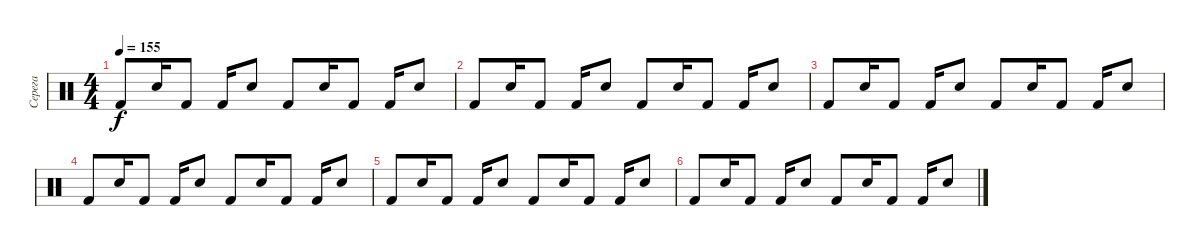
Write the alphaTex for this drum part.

\track ("Серега" "Серега") {instrument percussion}
\staff {score}
\articulation defaults
\ts (4 4)
\tempo 155
\clef neutral
\ks c "Kick (hit) 2".8{dy f} "Snare (hit) 2".16 "Kick (hit) 2".8 "Kick (hit) 2".16 "Snare (hit) 2".8 "Kick (hit) 2".8 "Snare (hit) 2".16 "Kick (hit) 2".8 "Kick (hit) 2".16 "Snare (hit) 2".8
|
"Kick (hit) 2".8 "Snare (hit) 2".16 "Kick (hit) 2".8 "Kick (hit) 2".16 "Snare (hit) 2".8 "Kick (hit) 2".8 "Snare (hit) 2".16 "Kick (hit) 2".8 "Kick (hit) 2".16 "Snare (hit) 2".8 |
"Kick (hit) 2".8 "Snare (hit) 2".16 "Kick (hit) 2".8 "Kick (hit) 2".16 "Snare (hit) 2".8 "Kick (hit) 2".8 "Snare (hit) 2".16 "Kick (hit) 2".8 "Kick (hit) 2".16 "Snare (hit) 2".8 |
"Kick (hit) 2".8 "Snare (hit) 2".16 "Kick (hit) 2".8 "Kick (hit) 2".16 "Snare (hit) 2".8 "Kick (hit) 2".8 "Snare (hit) 2".16 "Kick (hit) 2".8 "Kick (hit) 2".16 "Snare (hit) 2".8 |
"Kick (hit) 2".8 "Snare (hit) 2".16 "Kick (hit) 2".8 "Kick (hit) 2".16 "Snare (hit) 2".8 "Kick (hit) 2".8 "Snare (hit) 2".16 "Kick (hit) 2".8 "Kick (hit) 2".16 "Snare (hit) 2".8 |
"Kick (hit) 2".8 "Snare (hit) 2".16 "Kick (hit) 2".8 "Kick (hit) 2".16 "Snare (hit) 2".8 "Kick (hit) 2".8 "Snare (hit) 2".16 "Kick (hit) 2".8 "Kick (hit) 2".16 "Snare (hit) 2".8
